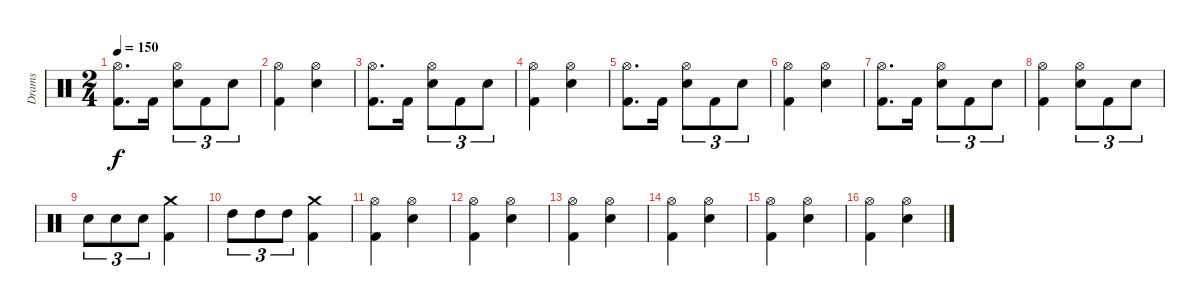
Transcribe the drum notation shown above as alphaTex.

\track ("Drams" "Drams") {instrument percussion}
\staff {score}
\articulation defaults
\ts (2 4)
\tempo 150
\clef neutral
\ks aminor
("Kick (hit) 2" "Hi-Hat (open)").8{d dy f} "Kick (hit) 2".16 ("Electric Snare (hit)" "Hi-Hat (open)").8{tu (3 2)} "Kick (hit) 2".8{tu (3 2)} "Electric Snare (hit)".8{tu (3 2)} |
("Hi-Hat (open)" "Kick (hit) 2").4 ("Hi-Hat (open)" "Electric Snare (hit)").4 |
("Kick (hit) 2" "Hi-Hat (open)").8{d} "Kick (hit) 2".16 ("Electric Snare (hit)" "Hi-Hat (open)").8{tu (3 2)} "Kick (hit) 2".8{tu (3 2)} "Electric Snare (hit)".8{tu (3 2)} |
("Hi-Hat (open)" "Kick (hit) 2").4 ("Hi-Hat (open)" "Electric Snare (hit)").4 |
("Kick (hit) 2" "Hi-Hat (open)").8{d} "Kick (hit) 2".16 ("Electric Snare (hit)" "Hi-Hat (open)").8{tu (3 2)} "Kick (hit) 2".8{tu (3 2)} "Electric Snare (hit)".8{tu (3 2)} |
("Hi-Hat (open)" "Kick (hit) 2").4 ("Hi-Hat (open)" "Electric Snare (hit)").4 |
("Kick (hit) 2" "Hi-Hat (open)").8{d} "Kick (hit) 2".16 ("Electric Snare (hit)" "Hi-Hat (open)").8{tu (3 2)} "Kick (hit) 2".8{tu (3 2)} "Electric Snare (hit)".8{tu (3 2)} |
("Hi-Hat (open)" "Kick (hit) 2").4 ("Hi-Hat (open)" "Electric Snare (hit)").8{tu (3 2)} "Kick (hit) 2".8{tu (3 2)} "Electric Snare (hit)".8{tu (3 2)} |
"Electric Snare (hit)".8{tu (3 2)} "Electric Snare (hit)".8{tu (3 2)} "Electric Snare (hit)".8{tu (3 2)} ("Kick (hit) 2" "Crash medium (hit)").4 |
"High Tom (hit)".8{tu (3 2)} "High Tom (hit)".8{tu (3 2)} "High Tom (hit)".8{tu (3 2)} ("Crash medium (hit)" "Kick (hit) 2").4 |
("Hi-Hat (open)" "Kick (hit) 2").4 ("Hi-Hat (open)" "Electric Snare (hit)").4 |
("Hi-Hat (open)" "Kick (hit) 2").4 ("Hi-Hat (open)" "Electric Snare (hit)").4 |
("Hi-Hat (open)" "Kick (hit) 2").4 ("Hi-Hat (open)" "Electric Snare (hit)").4 |
("Hi-Hat (open)" "Kick (hit) 2").4 ("Hi-Hat (open)" "Electric Snare (hit)").4 |
("Hi-Hat (open)" "Kick (hit) 2").4 ("Hi-Hat (open)" "Electric Snare (hit)").4 |
("Hi-Hat (open)" "Kick (hit) 2").4 ("Hi-Hat (open)" "Electric Snare (hit)").4
